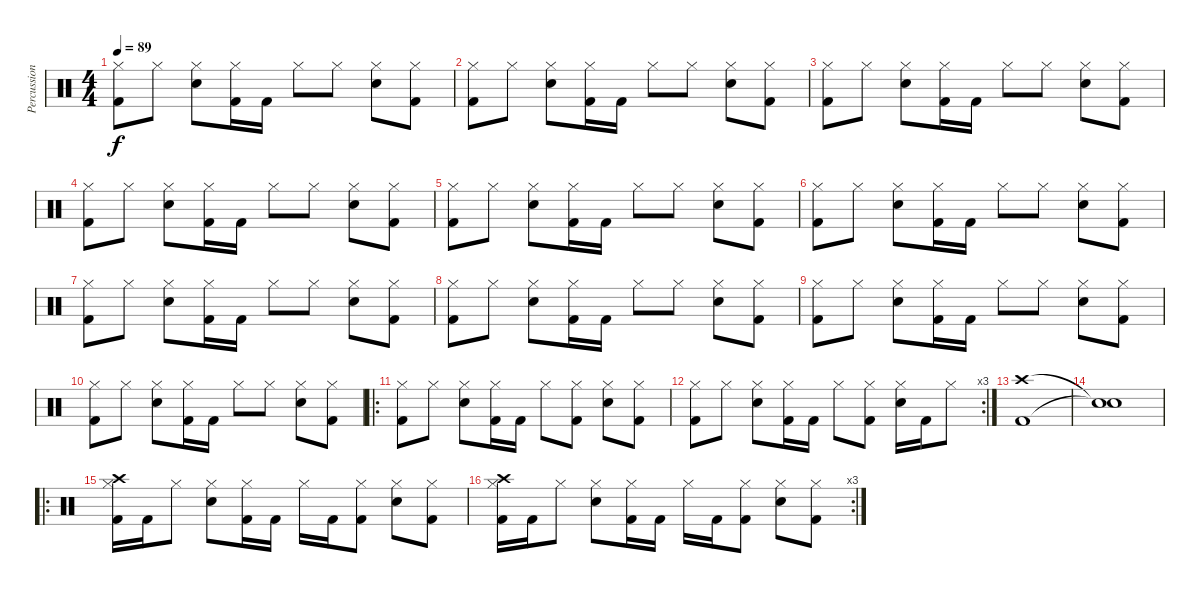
\track ("Percussion" "Percussion") {instrument percussion}
\staff {score}
\articulation defaults
\ts (4 4)
\tempo 89
\clef neutral
\ks c
("Hi-Hat (closed)" "Kick (hit) 2").8{dy f} "Hi-Hat (closed)".8 ("Hi-Hat (closed)" "Electric Snare (hit)").8 ("Hi-Hat (closed)" "Kick (hit) 2").16 "Kick (hit) 2".16 "Hi-Hat (closed)".8 "Hi-Hat (closed)".8 ("Hi-Hat (closed)" "Electric Snare (hit)").8 ("Hi-Hat (closed)" "Kick (hit) 2").8 |
("Hi-Hat (closed)" "Kick (hit) 2").8 "Hi-Hat (closed)".8 ("Hi-Hat (closed)" "Electric Snare (hit)").8 ("Hi-Hat (closed)" "Kick (hit) 2").16 "Kick (hit) 2".16 "Hi-Hat (closed)".8 "Hi-Hat (closed)".8 ("Hi-Hat (closed)" "Electric Snare (hit)").8 ("Hi-Hat (closed)" "Kick (hit) 2").8 |
("Hi-Hat (closed)" "Kick (hit) 2").8 "Hi-Hat (closed)".8 ("Hi-Hat (closed)" "Electric Snare (hit)").8 ("Hi-Hat (closed)" "Kick (hit) 2").16 "Kick (hit) 2".16 "Hi-Hat (closed)".8 "Hi-Hat (closed)".8 ("Hi-Hat (closed)" "Electric Snare (hit)").8 ("Hi-Hat (closed)" "Kick (hit) 2").8 |
("Hi-Hat (closed)" "Kick (hit) 2").8 "Hi-Hat (closed)".8 ("Hi-Hat (closed)" "Electric Snare (hit)").8 ("Hi-Hat (closed)" "Kick (hit) 2").16 "Kick (hit) 2".16 "Hi-Hat (closed)".8 "Hi-Hat (closed)".8 ("Hi-Hat (closed)" "Electric Snare (hit)").8 ("Hi-Hat (closed)" "Kick (hit) 2").8 |
("Hi-Hat (closed)" "Kick (hit) 2").8 "Hi-Hat (closed)".8 ("Hi-Hat (closed)" "Electric Snare (hit)").8 ("Hi-Hat (closed)" "Kick (hit) 2").16 "Kick (hit) 2".16 "Hi-Hat (closed)".8 "Hi-Hat (closed)".8 ("Hi-Hat (closed)" "Electric Snare (hit)").8 ("Hi-Hat (closed)" "Kick (hit) 2").8 |
("Hi-Hat (closed)" "Kick (hit) 2").8 "Hi-Hat (closed)".8 ("Hi-Hat (closed)" "Electric Snare (hit)").8 ("Hi-Hat (closed)" "Kick (hit) 2").16 "Kick (hit) 2".16 "Hi-Hat (closed)".8 "Hi-Hat (closed)".8 ("Hi-Hat (closed)" "Electric Snare (hit)").8 ("Hi-Hat (closed)" "Kick (hit) 2").8 |
("Hi-Hat (closed)" "Kick (hit) 2").8 "Hi-Hat (closed)".8 ("Hi-Hat (closed)" "Electric Snare (hit)").8 ("Hi-Hat (closed)" "Kick (hit) 2").16 "Kick (hit) 2".16 "Hi-Hat (closed)".8 "Hi-Hat (closed)".8 ("Hi-Hat (closed)" "Electric Snare (hit)").8 ("Hi-Hat (closed)" "Kick (hit) 2").8 |
("Hi-Hat (closed)" "Kick (hit) 2").8 "Hi-Hat (closed)".8 ("Hi-Hat (closed)" "Electric Snare (hit)").8 ("Hi-Hat (closed)" "Kick (hit) 2").16 "Kick (hit) 2".16 "Hi-Hat (closed)".8 "Hi-Hat (closed)".8 ("Hi-Hat (closed)" "Electric Snare (hit)").8 ("Hi-Hat (closed)" "Kick (hit) 2").8 |
("Hi-Hat (closed)" "Kick (hit) 2").8 "Hi-Hat (closed)".8 ("Hi-Hat (closed)" "Electric Snare (hit)").8 ("Hi-Hat (closed)" "Kick (hit) 2").16 "Kick (hit) 2".16 "Hi-Hat (closed)".8 "Hi-Hat (closed)".8 ("Hi-Hat (closed)" "Electric Snare (hit)").8 ("Hi-Hat (closed)" "Kick (hit) 2").8 |
("Hi-Hat (closed)" "Kick (hit) 2").8 "Hi-Hat (closed)".8 ("Hi-Hat (closed)" "Electric Snare (hit)").8 ("Hi-Hat (closed)" "Kick (hit) 2").16 "Kick (hit) 2".16 "Hi-Hat (closed)".8 "Hi-Hat (closed)".8 ("Hi-Hat (closed)" "Electric Snare (hit)").8 ("Hi-Hat (closed)" "Kick (hit) 2").8 |
\ro
("Hi-Hat (closed)" "Kick (hit) 2").8 "Hi-Hat (closed)".8 ("Hi-Hat (closed)" "Electric Snare (hit)").8 ("Hi-Hat (closed)" "Kick (hit) 2").16 "Kick (hit) 2".16 "Hi-Hat (closed)".8 ("Hi-Hat (closed)" "Kick (hit) 2").8 ("Hi-Hat (closed)" "Electric Snare (hit)").8 ("Hi-Hat (closed)" "Kick (hit) 2").8 |
\rc 3
("Hi-Hat (closed)" "Kick (hit) 2").8 "Hi-Hat (closed)".8 ("Hi-Hat (closed)" "Electric Snare (hit)").8 ("Hi-Hat (closed)" "Kick (hit) 2").16 "Kick (hit) 2".16 "Hi-Hat (closed)".8 ("Hi-Hat (closed)" "Kick (hit) 2").8 ("Hi-Hat (closed)" "Electric Snare (hit)").16 "Kick (hit) 2".16 "Hi-Hat (closed)".8 |
("Crash high (hit)" "Kick (hit) 2").1 |
("Snare (hit)"{t} "Snare (hit)"{t}).1 |
\ro
("Crash high (hit)" "Hi-Hat (closed)" "Kick (hit) 2").16 "Kick (hit) 2".16 "Hi-Hat (closed)".8 ("Hi-Hat (closed)" "Snare (hit) 2").8 ("Hi-Hat (closed)" "Kick (hit) 2").16 "Kick (hit) 2".16 "Hi-Hat (closed)".16 "Kick (hit) 2".16 ("Hi-Hat (closed)" "Kick (hit) 2").8 ("Hi-Hat (closed)" "Snare (hit) 2").8 ("Hi-Hat (closed)" "Kick (hit) 2").8 |
\rc 3
("Crash high (hit)" "Hi-Hat (closed)" "Kick (hit) 2").16 "Kick (hit) 2".16 "Hi-Hat (closed)".8 ("Hi-Hat (closed)" "Snare (hit) 2").8 ("Hi-Hat (closed)" "Kick (hit) 2").16 "Kick (hit) 2".16 "Hi-Hat (closed)".16 "Kick (hit) 2".16 ("Hi-Hat (closed)" "Kick (hit) 2").8 ("Hi-Hat (closed)" "Snare (hit) 2").8 ("Hi-Hat (closed)" "Kick (hit) 2").8
